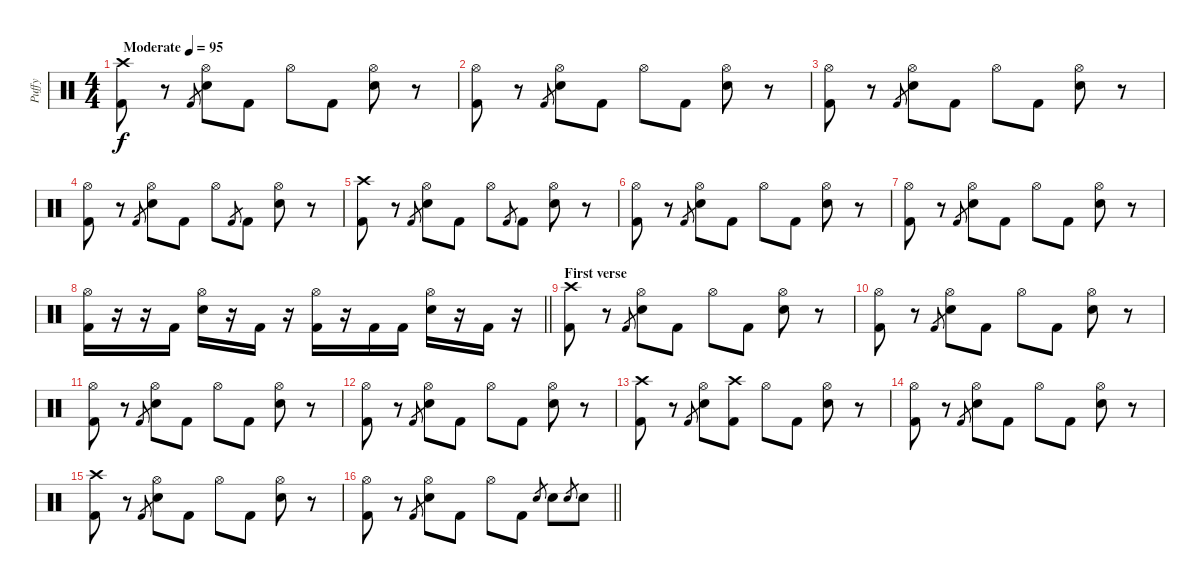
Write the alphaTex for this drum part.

\track ("Puffy" "Puffy") {instrument percussion}
\staff {score}
\articulation defaults
\ts (4 4)
\tempo (95 "Moderate")
\clef neutral
\ks c
("Crash high (hit)" "Kick (hit) 2").8{dy f} r.8 "Kick (hit) 2".8{gr} ("Hi-Hat (open)" "Snare (hit) 2").8 "Kick (hit) 2".8 "Hi-Hat (open)".8 "Kick (hit) 2".8 ("Hi-Hat (open)" "Snare (hit) 2").8 r.8 |
("Hi-Hat (open)" "Kick (hit) 2").8 r.8 "Kick (hit) 2".8{gr} ("Hi-Hat (open)" "Snare (hit) 2").8 "Kick (hit) 2".8 "Hi-Hat (open)".8 "Kick (hit) 2".8 ("Hi-Hat (open)" "Snare (hit) 2").8 r.8 |
("Hi-Hat (open)" "Kick (hit) 2").8 r.8 "Kick (hit) 2".8{gr} ("Hi-Hat (open)" "Snare (hit) 2").8 "Kick (hit) 2".8 "Hi-Hat (open)".8 "Kick (hit) 2".8 ("Hi-Hat (open)" "Snare (hit) 2").8 r.8 |
("Hi-Hat (open)" "Kick (hit) 2").8 r.8 "Kick (hit) 2".8{gr} ("Hi-Hat (open)" "Snare (hit) 2").8 "Kick (hit) 2".8 "Hi-Hat (open)".8 "Kick (hit) 2".8{gr} "Kick (hit) 2".8 ("Hi-Hat (open)" "Snare (hit) 2").8 r.8 |
("Crash high (hit)" "Kick (hit) 2").8 r.8 "Kick (hit) 2".8{gr} ("Hi-Hat (open)" "Snare (hit) 2").8 "Kick (hit) 2".8 "Hi-Hat (open)".8 "Kick (hit) 2".8{gr} "Kick (hit) 2".8 ("Hi-Hat (open)" "Snare (hit) 2").8 r.8 |
("Hi-Hat (open)" "Kick (hit) 2").8 r.8 "Kick (hit) 2".8{gr} ("Hi-Hat (open)" "Snare (hit) 2").8 "Kick (hit) 2".8 "Hi-Hat (open)".8 "Kick (hit) 2".8 ("Hi-Hat (open)" "Snare (hit) 2").8 r.8 |
("Hi-Hat (open)" "Kick (hit) 2").8 r.8 "Kick (hit) 2".8{gr} ("Hi-Hat (open)" "Snare (hit) 2").8 "Kick (hit) 2".8 "Hi-Hat (open)".8 "Kick (hit) 2".8 ("Hi-Hat (open)" "Snare (hit) 2").8 r.8 |
\barLineRight lightlight
("Hi-Hat (open)" "Kick (hit) 2").16 r.16 r.16 "Kick (hit) 2".16 ("Hi-Hat (open)" "Snare (hit) 2").16 r.16 "Kick (hit) 2".16 r.16 ("Hi-Hat (open)" "Kick (hit) 2").16 r.16 "Kick (hit) 2".16 "Kick (hit) 2".16 ("Hi-Hat (open)" "Snare (hit) 2").16 r.16 "Kick (hit) 2".16 r.16 |
\section ("" "First verse")
("Crash high (hit)" "Kick (hit) 2").8 r.8 "Kick (hit) 2".8{gr} ("Hi-Hat (open)" "Snare (hit) 2").8 "Kick (hit) 2".8 "Hi-Hat (open)".8 "Kick (hit) 2".8 ("Hi-Hat (open)" "Snare (hit) 2").8 r.8 |
("Hi-Hat (open)" "Kick (hit) 2").8 r.8 "Kick (hit) 2".8{gr} ("Hi-Hat (open)" "Snare (hit) 2").8 "Kick (hit) 2".8 "Hi-Hat (open)".8 "Kick (hit) 2".8 ("Hi-Hat (open)" "Snare (hit) 2").8 r.8 |
("Hi-Hat (open)" "Kick (hit) 2").8 r.8 "Kick (hit) 2".8{gr} ("Hi-Hat (open)" "Snare (hit) 2").8 "Kick (hit) 2".8 "Hi-Hat (open)".8 "Kick (hit) 2".8 ("Hi-Hat (open)" "Snare (hit) 2").8 r.8 |
("Hi-Hat (open)" "Kick (hit) 2").8 r.8 "Kick (hit) 2".8{gr} ("Hi-Hat (open)" "Snare (hit) 2").8 "Kick (hit) 2".8 "Hi-Hat (open)".8 "Kick (hit) 2".8 ("Hi-Hat (open)" "Snare (hit) 2").8 r.8 |
("Crash high (hit)" "Kick (hit) 2").8 r.8 "Kick (hit) 2".8{gr} ("Hi-Hat (open)" "Snare (hit) 2").8 ("Crash high (hit)" "Kick (hit) 2").8 "Hi-Hat (open)".8 "Kick (hit) 2".8 ("Hi-Hat (open)" "Snare (hit) 2").8 r.8 |
("Hi-Hat (open)" "Kick (hit) 2").8 r.8 "Kick (hit) 2".8{gr} ("Hi-Hat (open)" "Snare (hit) 2").8 "Kick (hit) 2".8 "Hi-Hat (open)".8 "Kick (hit) 2".8 ("Hi-Hat (open)" "Snare (hit) 2").8 r.8 |
("Crash high (hit)" "Kick (hit) 2").8 r.8 "Kick (hit) 2".8{gr} ("Hi-Hat (open)" "Snare (hit) 2").8 "Kick (hit) 2".8 "Hi-Hat (open)".8 "Kick (hit) 2".8 ("Hi-Hat (open)" "Snare (hit) 2").8 r.8 |
\barLineRight lightlight
("Hi-Hat (open)" "Kick (hit) 2").8 r.8 "Kick (hit) 2".8{gr} ("Hi-Hat (open)" "Snare (hit) 2").8 "Kick (hit) 2".8 "Hi-Hat (open)".8 "Kick (hit) 2".8 "Snare (hit) 2".8{gr} "Snare (hit) 2".8 "Snare (hit) 2".8{gr} "Snare (hit) 2".8
